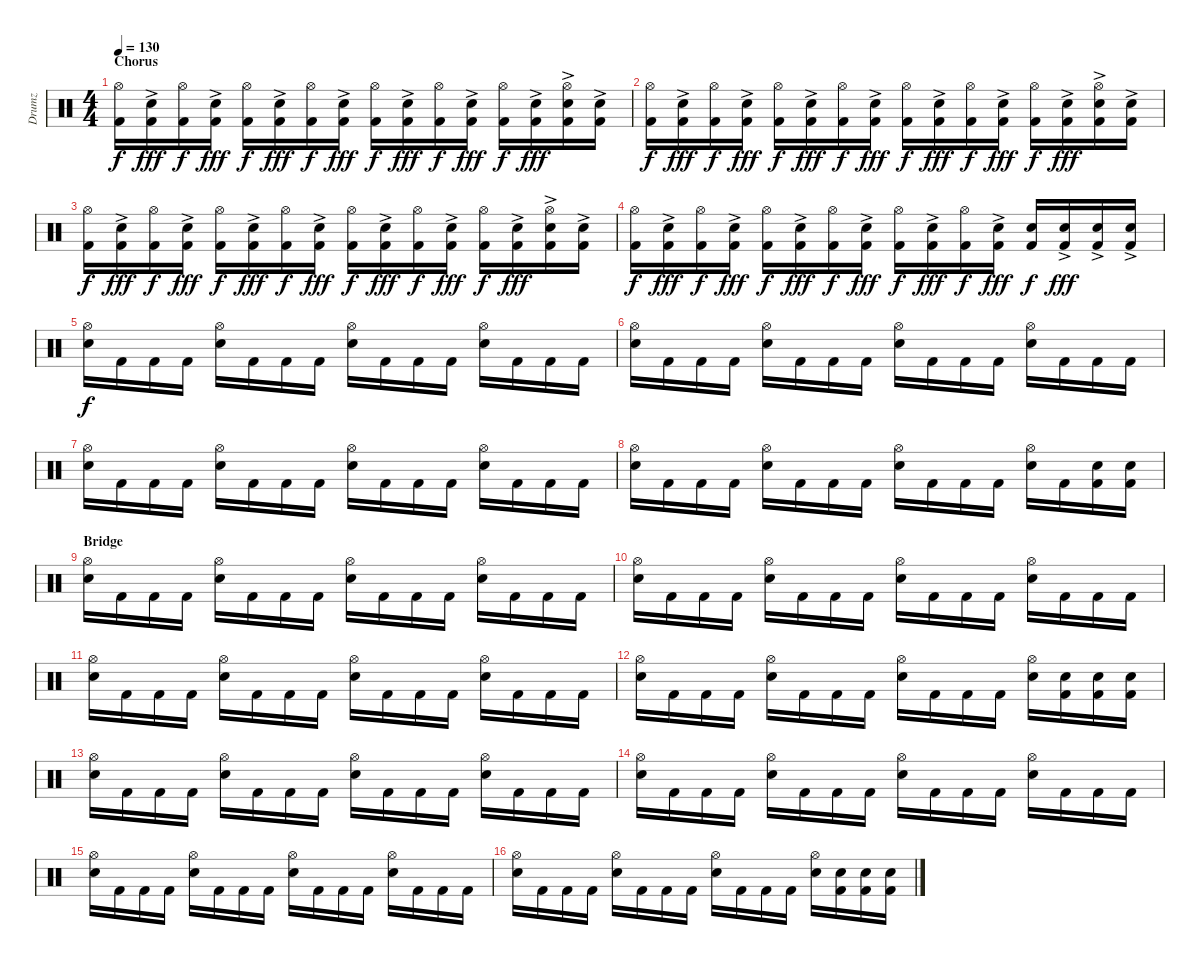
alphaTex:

\track ("Drumz" "Drumz") {instrument percussion}
\staff {score}
\articulation defaults
\ts (4 4)
\section ("" "Chorus")
\tempo 130
\clef neutral
\ks c
("Hi-Hat (open)" "Kick (hit) 2").16{dy f} ("Snare (hit) 2"{ac} "Kick (hit) 2").16{dy fff} ("Hi-Hat (open)" "Kick (hit) 2").16{dy f} ("Snare (hit) 2"{ac} "Kick (hit) 2").16{dy fff} ("Hi-Hat (open)" "Kick (hit) 2").16{dy f} ("Snare (hit) 2" "Kick (hit) 2"{ac}).16{dy fff} ("Hi-Hat (open)" "Kick (hit) 2").16{dy f} ("Snare (hit) 2"{ac} "Kick (hit) 2"{ac}).16{dy fff} ("Hi-Hat (open)" "Kick (hit) 2").16{dy f} ("Snare (hit) 2"{ac} "Kick (hit) 2").16{dy fff} ("Hi-Hat (open)" "Kick (hit) 2").16{dy f} ("Snare (hit) 2"{ac} "Kick (hit) 2").16{dy fff} ("Hi-Hat (open)" "Kick (hit) 2").16{dy f} ("Snare (hit) 2"{ac} "Kick (hit) 2").16{dy fff} ("Hi-Hat (open)" "Snare (hit) 2"{ac} "Kick (hit) 2").16 ("Snare (hit) 2"{ac} "Kick (hit) 2").16 |
("Hi-Hat (open)" "Kick (hit) 2").16{dy f} ("Snare (hit) 2"{ac} "Kick (hit) 2").16{dy fff} ("Hi-Hat (open)" "Kick (hit) 2").16{dy f} ("Snare (hit) 2"{ac} "Kick (hit) 2").16{dy fff} ("Hi-Hat (open)" "Kick (hit) 2").16{dy f} ("Snare (hit) 2" "Kick (hit) 2"{ac}).16{dy fff} ("Hi-Hat (open)" "Kick (hit) 2").16{dy f} ("Snare (hit) 2"{ac} "Kick (hit) 2"{ac}).16{dy fff} ("Hi-Hat (open)" "Kick (hit) 2").16{dy f} ("Snare (hit) 2"{ac} "Kick (hit) 2").16{dy fff} ("Hi-Hat (open)" "Kick (hit) 2").16{dy f} ("Snare (hit) 2"{ac} "Kick (hit) 2").16{dy fff} ("Hi-Hat (open)" "Kick (hit) 2").16{dy f} ("Snare (hit) 2"{ac} "Kick (hit) 2").16{dy fff} ("Hi-Hat (open)" "Snare (hit) 2"{ac} "Kick (hit) 2").16 ("Snare (hit) 2"{ac} "Kick (hit) 2").16 |
("Hi-Hat (open)" "Kick (hit) 2").16{dy f} ("Snare (hit) 2"{ac} "Kick (hit) 2").16{dy fff} ("Hi-Hat (open)" "Kick (hit) 2").16{dy f} ("Snare (hit) 2"{ac} "Kick (hit) 2").16{dy fff} ("Hi-Hat (open)" "Kick (hit) 2").16{dy f} ("Snare (hit) 2" "Kick (hit) 2"{ac}).16{dy fff} ("Hi-Hat (open)" "Kick (hit) 2").16{dy f} ("Snare (hit) 2"{ac} "Kick (hit) 2"{ac}).16{dy fff} ("Hi-Hat (open)" "Kick (hit) 2").16{dy f} ("Snare (hit) 2"{ac} "Kick (hit) 2").16{dy fff} ("Hi-Hat (open)" "Kick (hit) 2").16{dy f} ("Snare (hit) 2"{ac} "Kick (hit) 2").16{dy fff} ("Hi-Hat (open)" "Kick (hit) 2").16{dy f} ("Snare (hit) 2"{ac} "Kick (hit) 2").16{dy fff} ("Hi-Hat (open)" "Snare (hit) 2"{ac} "Kick (hit) 2").16 ("Snare (hit) 2"{ac} "Kick (hit) 2").16 |
("Hi-Hat (open)" "Kick (hit) 2").16{dy f} ("Snare (hit) 2"{ac} "Kick (hit) 2").16{dy fff} ("Hi-Hat (open)" "Kick (hit) 2").16{dy f} ("Snare (hit) 2"{ac} "Kick (hit) 2").16{dy fff} ("Hi-Hat (open)" "Kick (hit) 2").16{dy f} ("Snare (hit) 2" "Kick (hit) 2"{ac}).16{dy fff} ("Hi-Hat (open)" "Kick (hit) 2").16{dy f} ("Snare (hit) 2"{ac} "Kick (hit) 2"{ac}).16{dy fff} ("Hi-Hat (open)" "Kick (hit) 2").16{dy f} ("Snare (hit) 2"{ac} "Kick (hit) 2").16{dy fff} ("Hi-Hat (open)" "Kick (hit) 2").16{dy f} ("Snare (hit) 2"{ac} "Kick (hit) 2").16{dy fff} ("Snare (hit) 2" "Kick (hit) 2").16{dy f} ("Snare (hit) 2"{ac} "Kick (hit) 2").16{dy fff} ("Snare (hit) 2"{ac} "Kick (hit) 2").16 ("Snare (hit) 2"{ac} "Kick (hit) 2").16 |
("Hi-Hat (open)" "Snare (hit) 2").16{dy f} "Kick (hit) 2".16 "Kick (hit) 2".16 "Kick (hit) 2".16 ("Hi-Hat (open)" "Snare (hit) 2").16 "Kick (hit) 2".16 "Kick (hit) 2".16 "Kick (hit) 2".16 ("Hi-Hat (open)" "Snare (hit) 2").16 "Kick (hit) 2".16 "Kick (hit) 2".16 "Kick (hit) 2".16 ("Hi-Hat (open)" "Snare (hit) 2").16 "Kick (hit) 2".16 "Kick (hit) 2".16 "Kick (hit) 2".16 |
("Hi-Hat (open)" "Snare (hit) 2").16 "Kick (hit) 2".16 "Kick (hit) 2".16 "Kick (hit) 2".16 ("Hi-Hat (open)" "Snare (hit) 2").16 "Kick (hit) 2".16 "Kick (hit) 2".16 "Kick (hit) 2".16 ("Hi-Hat (open)" "Snare (hit) 2").16 "Kick (hit) 2".16 "Kick (hit) 2".16 "Kick (hit) 2".16 ("Hi-Hat (open)" "Snare (hit) 2").16 "Kick (hit) 2".16 "Kick (hit) 2".16 "Kick (hit) 2".16 |
("Hi-Hat (open)" "Snare (hit) 2").16 "Kick (hit) 2".16 "Kick (hit) 2".16 "Kick (hit) 2".16 ("Hi-Hat (open)" "Snare (hit) 2").16 "Kick (hit) 2".16 "Kick (hit) 2".16 "Kick (hit) 2".16 ("Hi-Hat (open)" "Snare (hit) 2").16 "Kick (hit) 2".16 "Kick (hit) 2".16 "Kick (hit) 2".16 ("Hi-Hat (open)" "Snare (hit) 2").16 "Kick (hit) 2".16 "Kick (hit) 2".16 "Kick (hit) 2".16 |
("Hi-Hat (open)" "Snare (hit) 2").16 "Kick (hit) 2".16 "Kick (hit) 2".16 "Kick (hit) 2".16 ("Hi-Hat (open)" "Snare (hit) 2").16 "Kick (hit) 2".16 "Kick (hit) 2".16 "Kick (hit) 2".16 ("Hi-Hat (open)" "Snare (hit) 2").16 "Kick (hit) 2".16 "Kick (hit) 2".16 "Kick (hit) 2".16 ("Hi-Hat (open)" "Snare (hit) 2").16 "Kick (hit) 2".16 ("Snare (hit) 2" "Kick (hit) 2").16 ("Snare (hit) 2" "Kick (hit) 2").16 |
\section ("" "Bridge")
("Hi-Hat (open)" "Snare (hit) 2").16 "Kick (hit) 2".16 "Kick (hit) 2".16 "Kick (hit) 2".16 ("Hi-Hat (open)" "Snare (hit) 2").16 "Kick (hit) 2".16 "Kick (hit) 2".16 "Kick (hit) 2".16 ("Hi-Hat (open)" "Snare (hit) 2").16 "Kick (hit) 2".16 "Kick (hit) 2".16 "Kick (hit) 2".16 ("Hi-Hat (open)" "Snare (hit) 2").16 "Kick (hit) 2".16 "Kick (hit) 2".16 "Kick (hit) 2".16 |
("Hi-Hat (open)" "Snare (hit) 2").16 "Kick (hit) 2".16 "Kick (hit) 2".16 "Kick (hit) 2".16 ("Hi-Hat (open)" "Snare (hit) 2").16 "Kick (hit) 2".16 "Kick (hit) 2".16 "Kick (hit) 2".16 ("Hi-Hat (open)" "Snare (hit) 2").16 "Kick (hit) 2".16 "Kick (hit) 2".16 "Kick (hit) 2".16 ("Hi-Hat (open)" "Snare (hit) 2").16 "Kick (hit) 2".16 "Kick (hit) 2".16 "Kick (hit) 2".16 |
("Hi-Hat (open)" "Snare (hit) 2").16 "Kick (hit) 2".16 "Kick (hit) 2".16 "Kick (hit) 2".16 ("Hi-Hat (open)" "Snare (hit) 2").16 "Kick (hit) 2".16 "Kick (hit) 2".16 "Kick (hit) 2".16 ("Hi-Hat (open)" "Snare (hit) 2").16 "Kick (hit) 2".16 "Kick (hit) 2".16 "Kick (hit) 2".16 ("Hi-Hat (open)" "Snare (hit) 2").16 "Kick (hit) 2".16 "Kick (hit) 2".16 "Kick (hit) 2".16 |
("Hi-Hat (open)" "Snare (hit) 2").16 "Kick (hit) 2".16 "Kick (hit) 2".16 "Kick (hit) 2".16 ("Hi-Hat (open)" "Snare (hit) 2").16 "Kick (hit) 2".16 "Kick (hit) 2".16 "Kick (hit) 2".16 ("Hi-Hat (open)" "Snare (hit) 2").16 "Kick (hit) 2".16 "Kick (hit) 2".16 "Kick (hit) 2".16 ("Hi-Hat (open)" "Snare (hit) 2").16 ("Snare (hit) 2" "Kick (hit) 2").16 ("Snare (hit) 2" "Kick (hit) 2").16 ("Snare (hit) 2" "Kick (hit) 2").16 |
("Hi-Hat (open)" "Snare (hit) 2").16 "Kick (hit) 2".16 "Kick (hit) 2".16 "Kick (hit) 2".16 ("Hi-Hat (open)" "Snare (hit) 2").16 "Kick (hit) 2".16 "Kick (hit) 2".16 "Kick (hit) 2".16 ("Hi-Hat (open)" "Snare (hit) 2").16 "Kick (hit) 2".16 "Kick (hit) 2".16 "Kick (hit) 2".16 ("Hi-Hat (open)" "Snare (hit) 2").16 "Kick (hit) 2".16 "Kick (hit) 2".16 "Kick (hit) 2".16 |
("Hi-Hat (open)" "Snare (hit) 2").16 "Kick (hit) 2".16 "Kick (hit) 2".16 "Kick (hit) 2".16 ("Hi-Hat (open)" "Snare (hit) 2").16 "Kick (hit) 2".16 "Kick (hit) 2".16 "Kick (hit) 2".16 ("Hi-Hat (open)" "Snare (hit) 2").16 "Kick (hit) 2".16 "Kick (hit) 2".16 "Kick (hit) 2".16 ("Hi-Hat (open)" "Snare (hit) 2").16 "Kick (hit) 2".16 "Kick (hit) 2".16 "Kick (hit) 2".16 |
("Hi-Hat (open)" "Snare (hit) 2").16 "Kick (hit) 2".16 "Kick (hit) 2".16 "Kick (hit) 2".16 ("Hi-Hat (open)" "Snare (hit) 2").16 "Kick (hit) 2".16 "Kick (hit) 2".16 "Kick (hit) 2".16 ("Hi-Hat (open)" "Snare (hit) 2").16 "Kick (hit) 2".16 "Kick (hit) 2".16 "Kick (hit) 2".16 ("Hi-Hat (open)" "Snare (hit) 2").16 "Kick (hit) 2".16 "Kick (hit) 2".16 "Kick (hit) 2".16 |
("Hi-Hat (open)" "Snare (hit) 2").16 "Kick (hit) 2".16 "Kick (hit) 2".16 "Kick (hit) 2".16 ("Hi-Hat (open)" "Snare (hit) 2").16 "Kick (hit) 2".16 "Kick (hit) 2".16 "Kick (hit) 2".16 ("Hi-Hat (open)" "Snare (hit) 2").16 "Kick (hit) 2".16 "Kick (hit) 2".16 "Kick (hit) 2".16 ("Hi-Hat (open)" "Snare (hit) 2").16 ("Snare (hit) 2" "Kick (hit) 2").16 ("Snare (hit) 2" "Kick (hit) 2").16 ("Snare (hit) 2" "Kick (hit) 2").16
